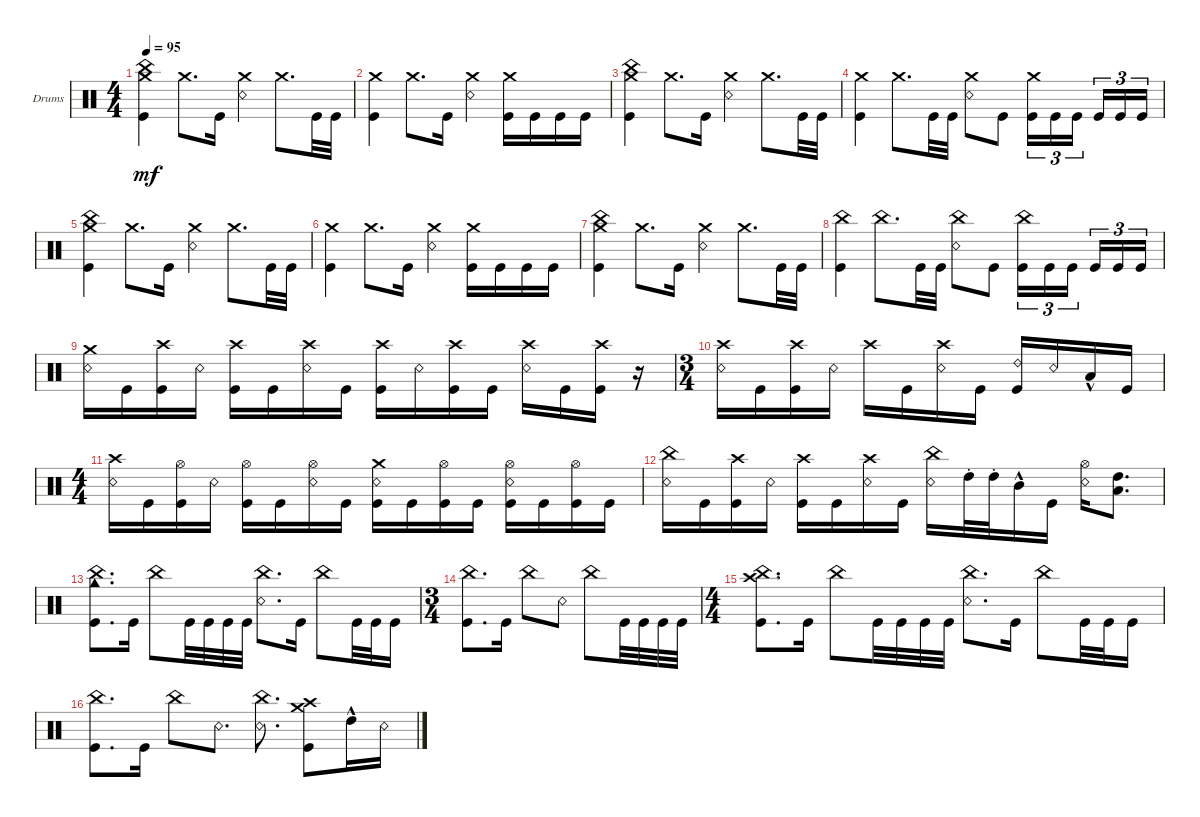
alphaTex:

\defaultSystemsLayout 4
\bracketExtendMode groupsimilarinstruments
\firstSystemTrackNameOrientation horizontal
\otherSystemsTrackNameOrientation horizontal
\track ("Drumkit" "Drums") {instrument percussion}
\staff {score}
\articulation defaults
\ts (4 4)
\tempo 95
\clef neutral
\ks c
("Kick (hit)" "Crash medium (hit)" "China (hit)").4{dy mf} "Crash medium (hit)".8{d} "Kick (hit)".16 ("Crash medium (hit)" "Snare (rim shot)").4 "Crash medium (hit)".8{d} "Kick (hit)".32 "Kick (hit)".32 |
("Crash medium (hit)" "Kick (hit)").4 "Crash medium (hit)".8{d} "Kick (hit)".16 ("Crash medium (hit)" "Snare (rim shot)").4 ("Crash medium (hit)" "Kick (hit)").16 "Kick (hit)".16 "Kick (hit)".16 "Kick (hit)".16 |
("Kick (hit)" "Crash medium (hit)" "China (hit)").4 "Crash medium (hit)".8{d} "Kick (hit)".16 ("Crash medium (hit)" "Snare (rim shot)").4 "Crash medium (hit)".8{d} "Kick (hit)".32 "Kick (hit)".32 |
("Crash medium (hit)" "Kick (hit)").4 "Crash medium (hit)".8{d} "Kick (hit)".32 "Kick (hit)".32 ("Crash medium (hit)" "Snare (rim shot)").8 "Kick (hit)".8 ("Crash medium (hit)" "Kick (hit)").16{tu (3 2)} "Kick (hit)".16{tu (3 2)} "Kick (hit)".16{tu (3 2)} "Kick (hit)".16{tu (3 2)} "Kick (hit)".16{tu (3 2)} "Kick (hit)".16{tu (3 2)} |
("Kick (hit)" "Crash medium (hit)" "China (hit)").4 "Crash medium (hit)".8{d} "Kick (hit)".16 ("Crash medium (hit)" "Snare (rim shot)").4 "Crash medium (hit)".8{d} "Kick (hit)".32 "Kick (hit)".32 |
("Crash medium (hit)" "Kick (hit)").4 "Crash medium (hit)".8{d} "Kick (hit)".16 ("Crash medium (hit)" "Snare (rim shot)").4 ("Crash medium (hit)" "Kick (hit)").16 "Kick (hit)".16 "Kick (hit)".16 "Kick (hit)".16 |
("Kick (hit)" "Crash medium (hit)" "China (hit)").4 "Crash medium (hit)".8{d} "Kick (hit)".16 ("Crash medium (hit)" "Snare (rim shot)").4 "Crash medium (hit)".8{d} "Kick (hit)".32 "Kick (hit)".32 |
("Kick (hit)" "China (hit)").4 "China (hit)".8{d} "Kick (hit)".32 "Kick (hit)".32 ("Snare (rim shot)" "China (hit)").8 "Kick (hit)".8 ("Kick (hit)" "China (hit)").16{tu (3 2)} "Kick (hit)".16{tu (3 2)} "Kick (hit)".16{tu (3 2)} "Kick (hit)".16{tu (3 2)} "Kick (hit)".16{tu (3 2)} "Kick (hit)".16{tu (3 2)} |
("Snare (rim shot)" "Crash medium (hit)").16 "Kick (hit)".16 ("Kick (hit)" "Crash high (hit)").16 "Snare (rim shot)".16 ("Kick (hit)" "Crash high (hit)").16 "Kick (hit)".16 ("Snare (rim shot)" "Crash high (hit)").16 "Kick (hit)".16 ("Kick (hit)" "Crash high (hit)").16 "Snare (rim shot)".16 ("Kick (hit)" "Crash high (hit)").16 "Kick (hit)".16 ("Snare (rim shot)" "Crash high (hit)").16 "Kick (hit)".16 ("Kick (hit)" "Crash high (hit)").16 r.16 |
\ts (3 4)
("Snare (rim shot)" "Crash high (hit)").16 "Kick (hit)".16 ("Kick (hit)" "Crash high (hit)").16 "Snare (rim shot)".16 "Crash high (hit)".16 "Kick (hit)".16 ("Snare (rim shot)" "Crash high (hit)").16 "Kick (hit)".16 ("Kick (hit)" "Ride (bell) 2").16 "Snare (rim shot)".16 "Low Tom (hit)"{hac}.16 "Kick (hit)".16 |
\ts (4 4)
("Snare (rim shot)" "Crash high (hit)").16 "Kick (hit)".16 ("Kick (hit)" "Hi-Hat (open)").16 "Snare (rim shot)".16 ("Hi-Hat (open)" "Kick (hit)").16 "Kick (hit)".16 ("Snare (rim shot)" "Hi-Hat (open)").16 "Kick (hit)".16 ("Kick (hit)" "Snare (rim shot)" "Crash medium (hit)").16 "Kick (hit)".16 ("Hi-Hat (open)" "Kick (hit)").16 "Kick (hit)".16 ("Snare (rim shot)" "Hi-Hat (open)" "Kick (hit)").16 "Kick (hit)".16 ("Hi-Hat (open)" "Kick (hit)").16 "Kick (hit)".16 |
("Snare (rim shot)" "China (hit)").16 "Kick (hit)".16 ("Kick (hit)" "Crash high (hit)").16 "Snare (rim shot)".16 ("Kick (hit)" "Crash high (hit)").16 "Kick (hit)".16 ("Snare (rim shot)" "Crash high (hit)").16 "Kick (hit)".16 ("Snare (rim shot)" "China (hit)").16 "High Tom (hit)"{st}.32 "High Tom (hit)"{st}.32 "Mid Tom (hit)"{hac}.16 "Kick (hit)".16 ("Snare (rim shot)" "Hi-Hat (open)").16 ("High Tom (hit)" "Low Tom (hit)").8{d} |
("China (hit)" "Cowbell high (hit)" "Kick (hit)").8{d} "Kick (hit)".16 "China (hit)".8 "Kick (hit)".32 "Kick (hit)".32 "Kick (hit)".32 "Kick (hit)".32 ("Snare (rim shot)" "China (hit)").8{d} "Kick (hit)".16 "China (hit)".8 "Kick (hit)".32 "Kick (hit)".32 "Kick (hit)".16 |
\ts (3 4)
("China (hit)" "Kick (hit)").8{d} "Kick (hit)".16 "China (hit)".8 "Snare (rim shot)".8 "China (hit)".8 "Kick (hit)".32 "Kick (hit)".32 "Kick (hit)".32 "Kick (hit)".32 |
\ts (4 4)
("China (hit)" "Kick (hit)" "Crash high (hit)").8{d} "Kick (hit)".16 "China (hit)".8 "Kick (hit)".32 "Kick (hit)".32 "Kick (hit)".32 "Kick (hit)".32 ("Snare (rim shot)" "China (hit)").8{d} "Kick (hit)".16 "China (hit)".8 "Kick (hit)".32 "Kick (hit)".32 "Kick (hit)".16 |
("China (hit)" "Kick (hit)").8{d} "Kick (hit)".16 "China (hit)".8 "Snare (rim shot)".8{d} ("Snare (rim shot)" "China (hit)").8{d} ("Kick (hit)" "Crash medium (hit)" "Crash high (hit)").8 "High Tom (hit)"{hac}.16 "Snare (rim shot)".16
